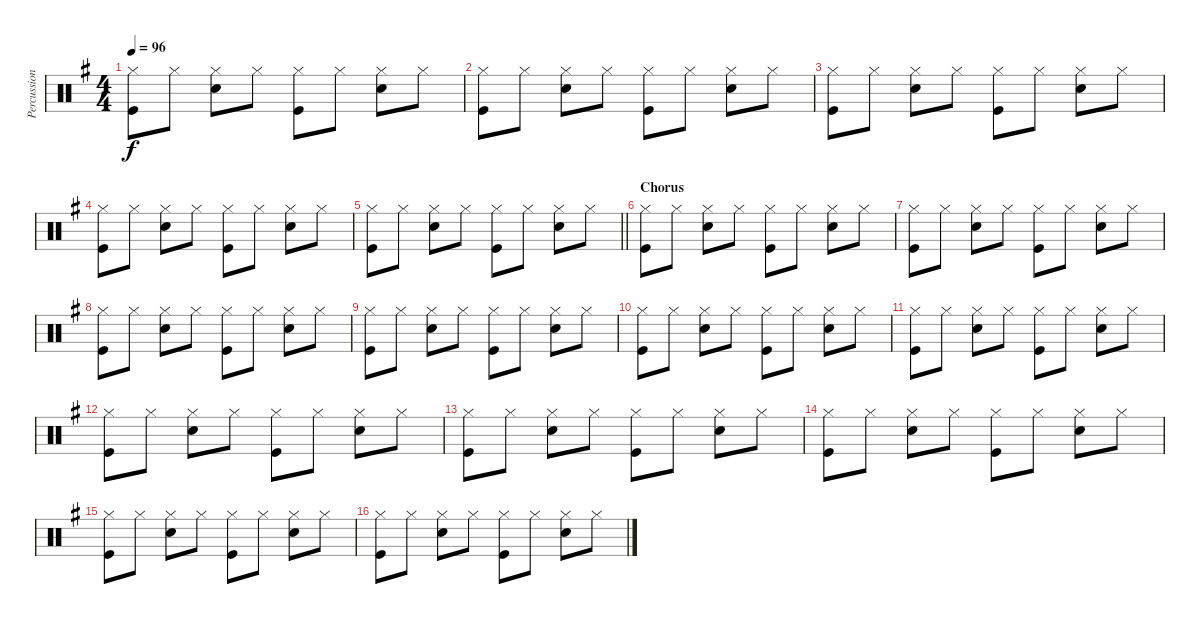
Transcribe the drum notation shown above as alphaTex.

\track ("Percussion" "Percussion") {instrument percussion}
\staff {score}
\articulation defaults
\ts (4 4)
\tempo 96
\clef neutral
\ks g
("Hi-Hat (closed)" "Kick (hit)").8{dy f} "Hi-Hat (closed)".8 ("Hi-Hat (closed)" "Snare (hit) 2").8 "Hi-Hat (closed)".8 ("Hi-Hat (closed)" "Kick (hit)").8 "Hi-Hat (closed)".8 ("Hi-Hat (closed)" "Snare (hit) 2").8 "Hi-Hat (closed)".8 |
("Hi-Hat (closed)" "Kick (hit)").8 "Hi-Hat (closed)".8 ("Hi-Hat (closed)" "Snare (hit) 2").8 "Hi-Hat (closed)".8 ("Hi-Hat (closed)" "Kick (hit)").8 "Hi-Hat (closed)".8 ("Hi-Hat (closed)" "Snare (hit) 2").8 "Hi-Hat (closed)".8 |
("Hi-Hat (closed)" "Kick (hit)").8 "Hi-Hat (closed)".8 ("Hi-Hat (closed)" "Snare (hit) 2").8 "Hi-Hat (closed)".8 ("Hi-Hat (closed)" "Kick (hit)").8 "Hi-Hat (closed)".8 ("Hi-Hat (closed)" "Snare (hit) 2").8 "Hi-Hat (closed)".8 |
("Hi-Hat (closed)" "Kick (hit)").8 "Hi-Hat (closed)".8 ("Hi-Hat (closed)" "Snare (hit) 2").8 "Hi-Hat (closed)".8 ("Hi-Hat (closed)" "Kick (hit)").8 "Hi-Hat (closed)".8 ("Hi-Hat (closed)" "Snare (hit) 2").8 "Hi-Hat (closed)".8 |
\barLineRight lightlight
("Hi-Hat (closed)" "Kick (hit)").8 "Hi-Hat (closed)".8 ("Hi-Hat (closed)" "Snare (hit) 2").8 "Hi-Hat (closed)".8 ("Hi-Hat (closed)" "Kick (hit)").8 "Hi-Hat (closed)".8 ("Hi-Hat (closed)" "Snare (hit) 2").8 "Hi-Hat (closed)".8 |
\section ("" "Chorus")
("Hi-Hat (closed)" "Kick (hit)").8 "Hi-Hat (closed)".8 ("Hi-Hat (closed)" "Snare (hit) 2").8 "Hi-Hat (closed)".8 ("Hi-Hat (closed)" "Kick (hit)").8 "Hi-Hat (closed)".8 ("Hi-Hat (closed)" "Snare (hit) 2").8 "Hi-Hat (closed)".8 |
("Hi-Hat (closed)" "Kick (hit)").8 "Hi-Hat (closed)".8 ("Hi-Hat (closed)" "Snare (hit) 2").8 "Hi-Hat (closed)".8 ("Hi-Hat (closed)" "Kick (hit)").8 "Hi-Hat (closed)".8 ("Hi-Hat (closed)" "Snare (hit) 2").8 "Hi-Hat (closed)".8 |
("Hi-Hat (closed)" "Kick (hit)").8 "Hi-Hat (closed)".8 ("Hi-Hat (closed)" "Snare (hit) 2").8 "Hi-Hat (closed)".8 ("Hi-Hat (closed)" "Kick (hit)").8 "Hi-Hat (closed)".8 ("Hi-Hat (closed)" "Snare (hit) 2").8 "Hi-Hat (closed)".8 |
("Hi-Hat (closed)" "Kick (hit)").8 "Hi-Hat (closed)".8 ("Hi-Hat (closed)" "Snare (hit) 2").8 "Hi-Hat (closed)".8 ("Hi-Hat (closed)" "Kick (hit)").8 "Hi-Hat (closed)".8 ("Hi-Hat (closed)" "Snare (hit) 2").8 "Hi-Hat (closed)".8 |
("Hi-Hat (closed)" "Kick (hit)").8 "Hi-Hat (closed)".8 ("Hi-Hat (closed)" "Snare (hit) 2").8 "Hi-Hat (closed)".8 ("Hi-Hat (closed)" "Kick (hit)").8 "Hi-Hat (closed)".8 ("Hi-Hat (closed)" "Snare (hit) 2").8 "Hi-Hat (closed)".8 |
("Hi-Hat (closed)" "Kick (hit)").8 "Hi-Hat (closed)".8 ("Hi-Hat (closed)" "Snare (hit) 2").8 "Hi-Hat (closed)".8 ("Hi-Hat (closed)" "Kick (hit)").8 "Hi-Hat (closed)".8 ("Hi-Hat (closed)" "Snare (hit) 2").8 "Hi-Hat (closed)".8 |
("Hi-Hat (closed)" "Kick (hit)").8 "Hi-Hat (closed)".8 ("Hi-Hat (closed)" "Snare (hit) 2").8 "Hi-Hat (closed)".8 ("Hi-Hat (closed)" "Kick (hit)").8 "Hi-Hat (closed)".8 ("Hi-Hat (closed)" "Snare (hit) 2").8 "Hi-Hat (closed)".8 |
("Hi-Hat (closed)" "Kick (hit)").8 "Hi-Hat (closed)".8 ("Hi-Hat (closed)" "Snare (hit) 2").8 "Hi-Hat (closed)".8 ("Hi-Hat (closed)" "Kick (hit)").8 "Hi-Hat (closed)".8 ("Hi-Hat (closed)" "Snare (hit) 2").8 "Hi-Hat (closed)".8 |
("Hi-Hat (closed)" "Kick (hit)").8 "Hi-Hat (closed)".8 ("Hi-Hat (closed)" "Snare (hit) 2").8 "Hi-Hat (closed)".8 ("Hi-Hat (closed)" "Kick (hit)").8 "Hi-Hat (closed)".8 ("Hi-Hat (closed)" "Snare (hit) 2").8 "Hi-Hat (closed)".8 |
("Hi-Hat (closed)" "Kick (hit)").8 "Hi-Hat (closed)".8 ("Hi-Hat (closed)" "Snare (hit) 2").8 "Hi-Hat (closed)".8 ("Hi-Hat (closed)" "Kick (hit)").8 "Hi-Hat (closed)".8 ("Hi-Hat (closed)" "Snare (hit) 2").8 "Hi-Hat (closed)".8 |
("Hi-Hat (closed)" "Kick (hit)").8 "Hi-Hat (closed)".8 ("Hi-Hat (closed)" "Snare (hit) 2").8 "Hi-Hat (closed)".8 ("Hi-Hat (closed)" "Kick (hit)").8 "Hi-Hat (closed)".8 ("Hi-Hat (closed)" "Snare (hit) 2").8 "Hi-Hat (closed)".8
